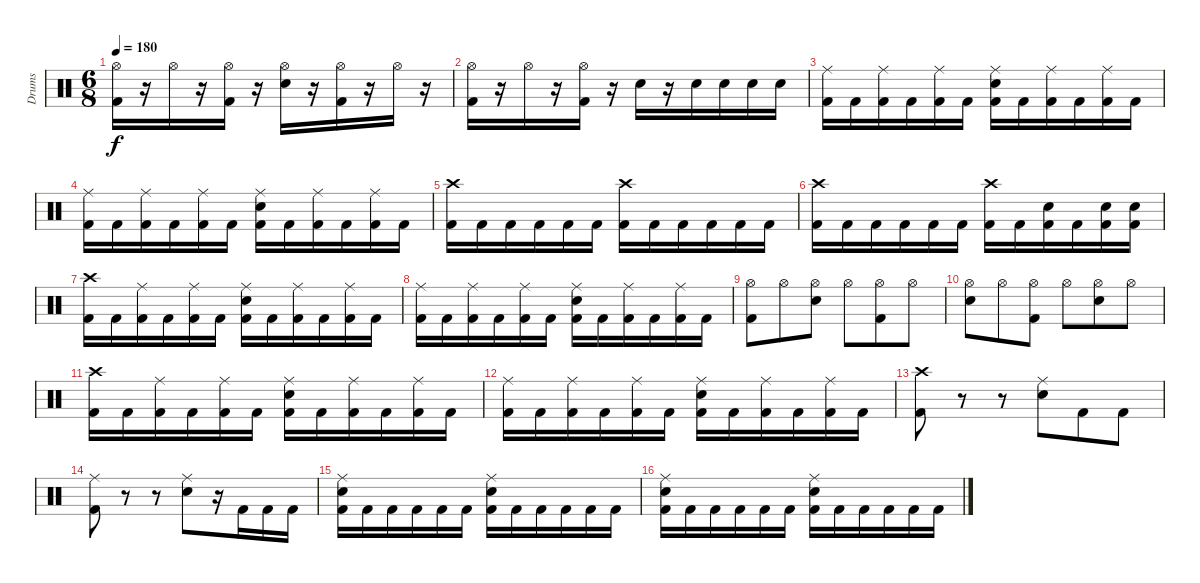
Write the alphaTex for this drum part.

\track ("Drums" "Drums") {instrument percussion}
\staff {score}
\articulation defaults
\ts (6 8)
\tempo 180
\clef neutral
\ks c
("Kick (hit) 2" "Hi-Hat (open)").16{dy f} r.16 "Hi-Hat (open)".16 r.16 ("Kick (hit) 2" "Hi-Hat (open)").16 r.16 ("Electric Snare (hit)" "Hi-Hat (open)").16 r.16 ("Kick (hit) 2" "Hi-Hat (open)").16 r.16 "Hi-Hat (open)".16 r.16 |
("Kick (hit) 2" "Hi-Hat (open)").16 r.16 "Hi-Hat (open)".16 r.16 ("Kick (hit) 2" "Hi-Hat (open)").16 r.16 "Electric Snare (hit)".16 r.16 "Electric Snare (hit)".16 "Electric Snare (hit)".16 "Electric Snare (hit)".16 "Electric Snare (hit)".16 |
("Kick (hit) 2" "Ride (middle)").16 "Kick (hit) 2".16 ("Kick (hit) 2" "Ride (middle)").16 "Kick (hit) 2".16 ("Kick (hit) 2" "Ride (middle)").16 "Kick (hit) 2".16 ("Kick (hit) 2" "Electric Snare (hit)" "Ride (middle)").16 "Kick (hit) 2".16 ("Kick (hit) 2" "Ride (middle)").16 "Kick (hit) 2".16 ("Kick (hit) 2" "Ride (middle)").16 "Kick (hit) 2".16 |
("Kick (hit) 2" "Ride (middle)").16 "Kick (hit) 2".16 ("Kick (hit) 2" "Ride (middle)").16 "Kick (hit) 2".16 ("Kick (hit) 2" "Ride (middle)").16 "Kick (hit) 2".16 ("Kick (hit) 2" "Electric Snare (hit)" "Ride (middle)").16 "Kick (hit) 2".16 ("Kick (hit) 2" "Ride (middle)").16 "Kick (hit) 2".16 ("Kick (hit) 2" "Ride (middle)").16 "Kick (hit) 2".16 |
("Kick (hit) 2" "Crash high (hit)").16 "Kick (hit) 2".16 "Kick (hit) 2".16 "Kick (hit) 2".16 "Kick (hit) 2".16 "Kick (hit) 2".16 ("Kick (hit) 2" "Crash high (hit)").16 "Kick (hit) 2".16 "Kick (hit) 2".16 "Kick (hit) 2".16 "Kick (hit) 2".16 "Kick (hit) 2".16 |
("Kick (hit) 2" "Crash high (hit)").16 "Kick (hit) 2".16 "Kick (hit) 2".16 "Kick (hit) 2".16 "Kick (hit) 2".16 "Kick (hit) 2".16 ("Kick (hit) 2" "Crash high (hit)").16 "Kick (hit) 2".16 ("Kick (hit) 2" "Electric Snare (hit)").16 "Kick (hit) 2".16 ("Kick (hit) 2" "Electric Snare (hit)").16 ("Kick (hit) 2" "Electric Snare (hit)").16 |
("Kick (hit) 2" "Crash high (hit)").16 "Kick (hit) 2".16 ("Kick (hit) 2" "Ride (middle)").16 "Kick (hit) 2".16 ("Kick (hit) 2" "Ride (middle)").16 "Kick (hit) 2".16 ("Kick (hit) 2" "Electric Snare (hit)" "Ride (middle)").16 "Kick (hit) 2".16 ("Kick (hit) 2" "Ride (middle)").16 "Kick (hit) 2".16 ("Kick (hit) 2" "Ride (middle)").16 "Kick (hit) 2".16 |
("Kick (hit) 2" "Ride (middle)").16 "Kick (hit) 2".16 ("Kick (hit) 2" "Ride (middle)").16 "Kick (hit) 2".16 ("Kick (hit) 2" "Ride (middle)").16 "Kick (hit) 2".16 ("Kick (hit) 2" "Electric Snare (hit)" "Ride (middle)").16 "Kick (hit) 2".16 ("Kick (hit) 2" "Ride (middle)").16 "Kick (hit) 2".16 ("Kick (hit) 2" "Ride (middle)").16 "Kick (hit) 2".16 |
("Kick (hit) 2" "Hi-Hat (open)").8 "Hi-Hat (open)".8 ("Electric Snare (hit)" "Hi-Hat (open)").8 "Hi-Hat (open)".8 ("Kick (hit) 2" "Hi-Hat (open)").8 "Hi-Hat (open)".8 |
("Electric Snare (hit)" "Hi-Hat (open)").8 "Hi-Hat (open)".8 ("Kick (hit) 2" "Hi-Hat (open)").8 "Hi-Hat (open)".8 ("Electric Snare (hit)" "Hi-Hat (open)").8 "Hi-Hat (open)".8 |
("Kick (hit) 2" "Crash high (hit)").16 "Kick (hit) 2".16 ("Kick (hit) 2" "Ride (middle)").16 "Kick (hit) 2".16 ("Kick (hit) 2" "Ride (middle)").16 "Kick (hit) 2".16 ("Kick (hit) 2" "Electric Snare (hit)" "Ride (middle)").16 "Kick (hit) 2".16 ("Kick (hit) 2" "Ride (middle)").16 "Kick (hit) 2".16 ("Kick (hit) 2" "Ride (middle)").16 "Kick (hit) 2".16 |
("Kick (hit) 2" "Ride (middle)").16 "Kick (hit) 2".16 ("Kick (hit) 2" "Ride (middle)").16 "Kick (hit) 2".16 ("Kick (hit) 2" "Ride (middle)").16 "Kick (hit) 2".16 ("Kick (hit) 2" "Electric Snare (hit)" "Ride (middle)").16 "Kick (hit) 2".16 ("Kick (hit) 2" "Ride (middle)").16 "Kick (hit) 2".16 ("Kick (hit) 2" "Ride (middle)").16 "Kick (hit) 2".16 |
("Kick (hit) 2" "Crash high (hit)").8 r.8 r.8 ("Electric Snare (hit)" "Ride (middle)").8 "Kick (hit) 2".8 "Kick (hit) 2".8 |
("Kick (hit) 2" "Ride (middle)").8 r.8 r.8 ("Electric Snare (hit)" "Ride (middle)").8 r.16 "Kick (hit) 2".16 "Kick (hit) 2".16 "Kick (hit) 2".16 |
("Kick (hit) 2" "Electric Snare (hit)" "Ride (middle)").16 "Kick (hit) 2".16 "Kick (hit) 2".16 "Kick (hit) 2".16 "Kick (hit) 2".16 "Kick (hit) 2".16 ("Kick (hit) 2" "Electric Snare (hit)" "Ride (middle)").16 "Kick (hit) 2".16 "Kick (hit) 2".16 "Kick (hit) 2".16 "Kick (hit) 2".16 "Kick (hit) 2".16 |
("Kick (hit) 2" "Electric Snare (hit)" "Ride (middle)").16 "Kick (hit) 2".16 "Kick (hit) 2".16 "Kick (hit) 2".16 "Kick (hit) 2".16 "Kick (hit) 2".16 ("Kick (hit) 2" "Electric Snare (hit)" "Ride (middle)").16 "Kick (hit) 2".16 "Kick (hit) 2".16 "Kick (hit) 2".16 "Kick (hit) 2".16 "Kick (hit) 2".16
